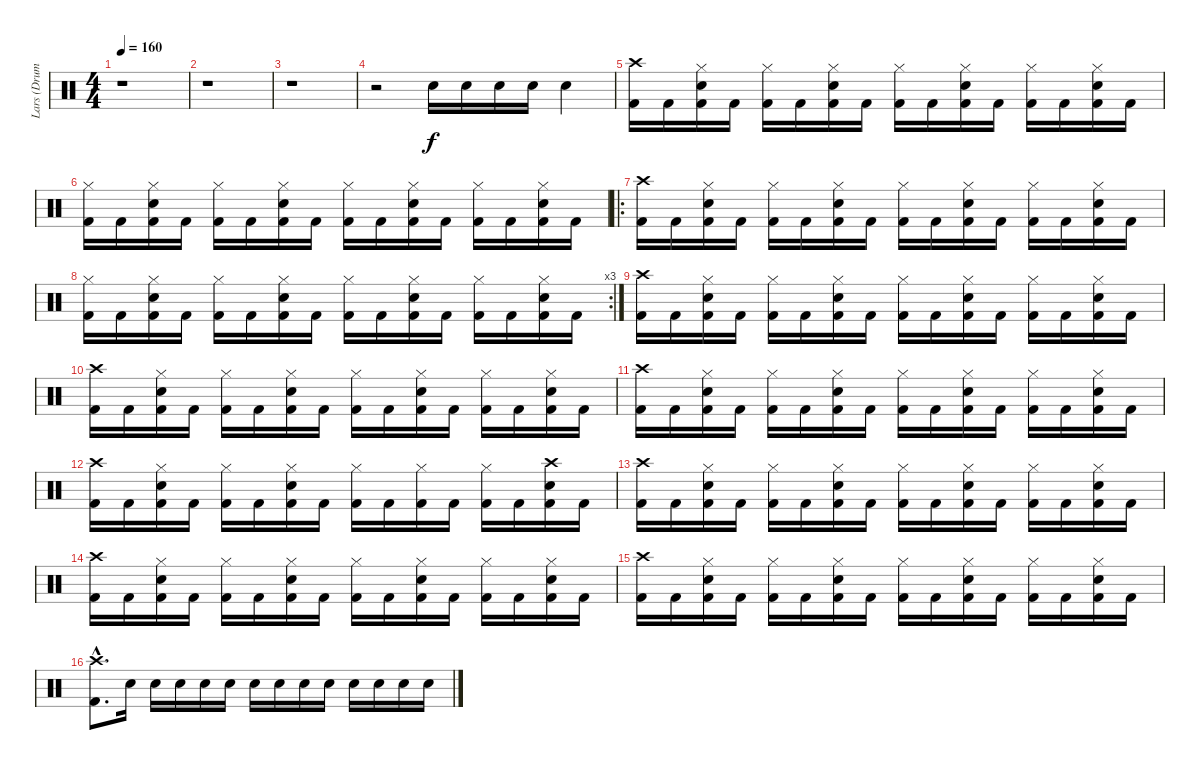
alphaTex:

\track ("Lars (Drums)" "Lars (Drum") {instrument percussion}
\staff {score}
\articulation defaults
\ts (4 4)
\tempo 160
\clef neutral
\ks c
r.1{dy f} |
r.1 |
r.1 |
r.2 "Snare (hit) 2".16 "Snare (hit) 2".16 "Snare (hit) 2".16 "Snare (hit) 2".16 "Snare (hit) 2".4 |
("Crash high (hit)" "Kick (hit) 2").16 "Kick (hit) 2".16 ("Hi-Hat (closed)" "Kick (hit) 2" "Snare (hit) 2").16 "Kick (hit) 2".16 ("Hi-Hat (closed)" "Kick (hit) 2").16 "Kick (hit) 2".16 ("Hi-Hat (closed)" "Kick (hit) 2" "Snare (hit) 2").16 "Kick (hit) 2".16 ("Hi-Hat (closed)" "Kick (hit) 2").16 "Kick (hit) 2".16 ("Hi-Hat (closed)" "Kick (hit) 2" "Snare (hit) 2").16 "Kick (hit) 2".16 ("Hi-Hat (closed)" "Kick (hit) 2").16 "Kick (hit) 2".16 ("Hi-Hat (closed)" "Kick (hit) 2" "Snare (hit) 2").16 "Kick (hit) 2".16 |
("Hi-Hat (closed)" "Kick (hit) 2").16 "Kick (hit) 2".16 ("Hi-Hat (closed)" "Kick (hit) 2" "Snare (hit) 2").16 "Kick (hit) 2".16 ("Hi-Hat (closed)" "Kick (hit) 2").16 "Kick (hit) 2".16 ("Hi-Hat (closed)" "Kick (hit) 2" "Snare (hit) 2").16 "Kick (hit) 2".16 ("Hi-Hat (closed)" "Kick (hit) 2").16 "Kick (hit) 2".16 ("Hi-Hat (closed)" "Kick (hit) 2" "Snare (hit) 2").16 "Kick (hit) 2".16 ("Hi-Hat (closed)" "Kick (hit) 2").16 "Kick (hit) 2".16 ("Hi-Hat (closed)" "Kick (hit) 2" "Snare (hit) 2").16 "Kick (hit) 2".16 |
\ro
("Crash high (hit)" "Kick (hit) 2").16 "Kick (hit) 2".16 ("Hi-Hat (closed)" "Kick (hit) 2" "Snare (hit) 2").16 "Kick (hit) 2".16 ("Hi-Hat (closed)" "Kick (hit) 2").16 "Kick (hit) 2".16 ("Hi-Hat (closed)" "Kick (hit) 2" "Snare (hit) 2").16 "Kick (hit) 2".16 ("Hi-Hat (closed)" "Kick (hit) 2").16 "Kick (hit) 2".16 ("Hi-Hat (closed)" "Kick (hit) 2" "Snare (hit) 2").16 "Kick (hit) 2".16 ("Hi-Hat (closed)" "Kick (hit) 2").16 "Kick (hit) 2".16 ("Hi-Hat (closed)" "Kick (hit) 2" "Snare (hit) 2").16 "Kick (hit) 2".16 |
\rc 3
("Hi-Hat (closed)" "Kick (hit) 2").16 "Kick (hit) 2".16 ("Hi-Hat (closed)" "Kick (hit) 2" "Snare (hit) 2").16 "Kick (hit) 2".16 ("Hi-Hat (closed)" "Kick (hit) 2").16 "Kick (hit) 2".16 ("Hi-Hat (closed)" "Kick (hit) 2" "Snare (hit) 2").16 "Kick (hit) 2".16 ("Hi-Hat (closed)" "Kick (hit) 2").16 "Kick (hit) 2".16 ("Hi-Hat (closed)" "Kick (hit) 2" "Snare (hit) 2").16 "Kick (hit) 2".16 ("Hi-Hat (closed)" "Kick (hit) 2").16 "Kick (hit) 2".16 ("Hi-Hat (closed)" "Kick (hit) 2" "Snare (hit) 2").16 "Kick (hit) 2".16 |
("Crash high (hit)" "Kick (hit) 2").16 "Kick (hit) 2".16 ("Hi-Hat (closed)" "Kick (hit) 2" "Snare (hit) 2").16 "Kick (hit) 2".16 ("Hi-Hat (closed)" "Kick (hit) 2").16 "Kick (hit) 2".16 ("Hi-Hat (closed)" "Kick (hit) 2" "Snare (hit) 2").16 "Kick (hit) 2".16 ("Hi-Hat (closed)" "Kick (hit) 2").16 "Kick (hit) 2".16 ("Hi-Hat (closed)" "Kick (hit) 2" "Snare (hit) 2").16 "Kick (hit) 2".16 ("Hi-Hat (closed)" "Kick (hit) 2").16 "Kick (hit) 2".16 ("Hi-Hat (closed)" "Kick (hit) 2" "Snare (hit) 2").16 "Kick (hit) 2".16 |
("Crash high (hit)" "Kick (hit) 2").16 "Kick (hit) 2".16 ("Hi-Hat (closed)" "Kick (hit) 2" "Snare (hit) 2").16 "Kick (hit) 2".16 ("Hi-Hat (closed)" "Kick (hit) 2").16 "Kick (hit) 2".16 ("Hi-Hat (closed)" "Kick (hit) 2" "Snare (hit) 2").16 "Kick (hit) 2".16 ("Hi-Hat (closed)" "Kick (hit) 2").16 "Kick (hit) 2".16 ("Hi-Hat (closed)" "Kick (hit) 2" "Snare (hit) 2").16 "Kick (hit) 2".16 ("Hi-Hat (closed)" "Kick (hit) 2").16 "Kick (hit) 2".16 ("Hi-Hat (closed)" "Kick (hit) 2" "Snare (hit) 2").16 "Kick (hit) 2".16 |
("Crash high (hit)" "Kick (hit) 2").16 "Kick (hit) 2".16 ("Hi-Hat (closed)" "Kick (hit) 2" "Snare (hit) 2").16 "Kick (hit) 2".16 ("Hi-Hat (closed)" "Kick (hit) 2").16 "Kick (hit) 2".16 ("Hi-Hat (closed)" "Kick (hit) 2" "Snare (hit) 2").16 "Kick (hit) 2".16 ("Hi-Hat (closed)" "Kick (hit) 2").16 "Kick (hit) 2".16 ("Hi-Hat (closed)" "Kick (hit) 2" "Snare (hit) 2").16 "Kick (hit) 2".16 ("Hi-Hat (closed)" "Kick (hit) 2").16 "Kick (hit) 2".16 ("Hi-Hat (closed)" "Kick (hit) 2" "Snare (hit) 2").16 "Kick (hit) 2".16 |
("Crash high (hit)" "Kick (hit) 2").16 "Kick (hit) 2".16 ("Hi-Hat (closed)" "Kick (hit) 2" "Snare (hit) 2").16 "Kick (hit) 2".16 ("Hi-Hat (closed)" "Kick (hit) 2").16 "Kick (hit) 2".16 ("Hi-Hat (closed)" "Kick (hit) 2" "Snare (hit) 2").16 "Kick (hit) 2".16 ("Hi-Hat (closed)" "Kick (hit) 2").16 "Kick (hit) 2".16 ("Hi-Hat (closed)" "Kick (hit) 2").16 "Kick (hit) 2".16 ("Hi-Hat (closed)" "Kick (hit) 2").16 "Kick (hit) 2".16 ("Crash high (hit)" "Kick (hit) 2" "Snare (hit) 2").16 "Kick (hit) 2".16 |
("Crash high (hit)" "Kick (hit) 2").16 "Kick (hit) 2".16 ("Hi-Hat (closed)" "Kick (hit) 2" "Snare (hit) 2").16 "Kick (hit) 2".16 ("Hi-Hat (closed)" "Kick (hit) 2").16 "Kick (hit) 2".16 ("Hi-Hat (closed)" "Kick (hit) 2" "Snare (hit) 2").16 "Kick (hit) 2".16 ("Hi-Hat (closed)" "Kick (hit) 2").16 "Kick (hit) 2".16 ("Hi-Hat (closed)" "Kick (hit) 2" "Snare (hit) 2").16 "Kick (hit) 2".16 ("Hi-Hat (closed)" "Kick (hit) 2").16 "Kick (hit) 2".16 ("Hi-Hat (closed)" "Kick (hit) 2" "Snare (hit) 2").16 "Kick (hit) 2".16 |
("Crash high (hit)" "Kick (hit) 2").16 "Kick (hit) 2".16 ("Hi-Hat (closed)" "Kick (hit) 2" "Snare (hit) 2").16 "Kick (hit) 2".16 ("Hi-Hat (closed)" "Kick (hit) 2").16 "Kick (hit) 2".16 ("Hi-Hat (closed)" "Kick (hit) 2" "Snare (hit) 2").16 "Kick (hit) 2".16 ("Hi-Hat (closed)" "Kick (hit) 2").16 "Kick (hit) 2".16 ("Hi-Hat (closed)" "Kick (hit) 2" "Snare (hit) 2").16 "Kick (hit) 2".16 ("Hi-Hat (closed)" "Kick (hit) 2").16 "Kick (hit) 2".16 ("Hi-Hat (closed)" "Kick (hit) 2" "Snare (hit) 2").16 "Kick (hit) 2".16 |
("Crash high (hit)" "Kick (hit) 2").16 "Kick (hit) 2".16 ("Hi-Hat (closed)" "Kick (hit) 2" "Snare (hit) 2").16 "Kick (hit) 2".16 ("Hi-Hat (closed)" "Kick (hit) 2").16 "Kick (hit) 2".16 ("Hi-Hat (closed)" "Kick (hit) 2" "Snare (hit) 2").16 "Kick (hit) 2".16 ("Hi-Hat (closed)" "Kick (hit) 2").16 "Kick (hit) 2".16 ("Hi-Hat (closed)" "Kick (hit) 2" "Snare (hit) 2").16 "Kick (hit) 2".16 ("Hi-Hat (closed)" "Kick (hit) 2").16 "Kick (hit) 2".16 ("Hi-Hat (closed)" "Kick (hit) 2" "Snare (hit) 2").16 "Kick (hit) 2".16 |
("Crash high (hit)"{hac} "Kick (hit) 2"{hac}).8{d} "Snare (hit) 2".16 "Snare (hit) 2".16 "Snare (hit) 2".16 "Snare (hit) 2".16 "Snare (hit) 2".16 "Snare (hit) 2".16 "Snare (hit) 2".16 "Snare (hit) 2".16 "Snare (hit) 2".16 "Snare (hit) 2".16 "Snare (hit) 2".16 "Snare (hit) 2".16 "Snare (hit) 2".16
